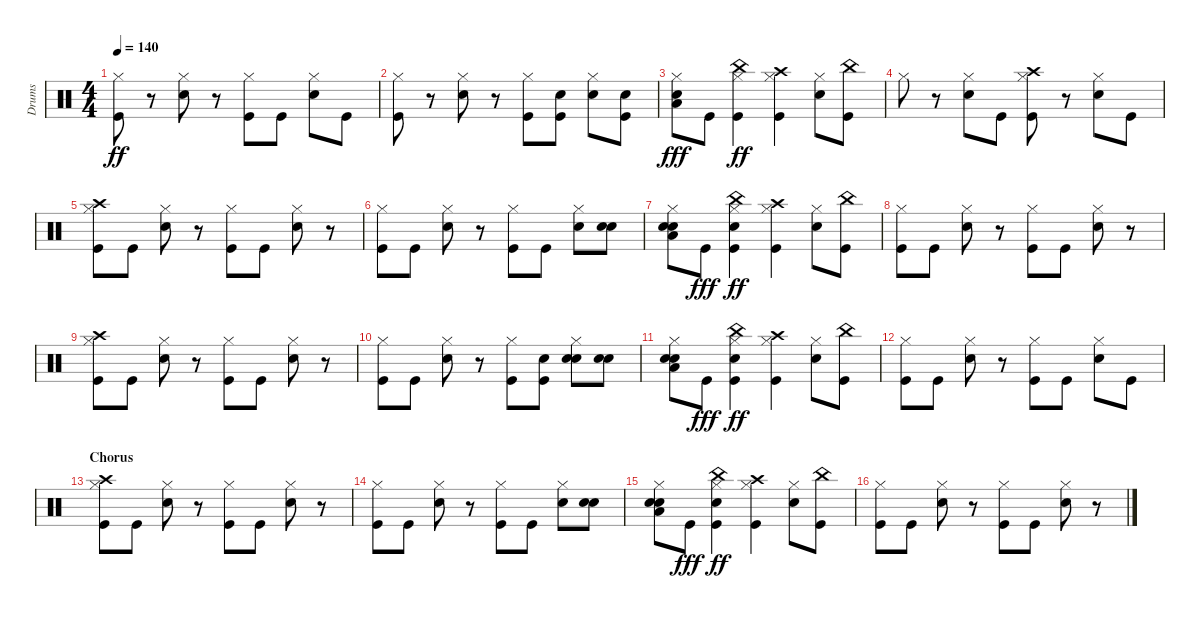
\track ("Drums" "Drums") {instrument percussion}
\staff {score}
\articulation defaults
\ts (4 4)
\tempo 140
\clef neutral
\ks c
("Hi-Hat (closed)" "Kick (hit)").8{dy ff} r.8 ("Hi-Hat (closed)" "Snare (hit) 2").8 r.8 ("Hi-Hat (closed)" "Kick (hit)").8 "Kick (hit)".8 ("Hi-Hat (closed)" "Snare (hit) 2").8 "Kick (hit)".8 |
("Hi-Hat (closed)" "Kick (hit)").8 r.8 ("Hi-Hat (closed)" "Snare (hit) 2").8 r.8 ("Hi-Hat (closed)" "Kick (hit)").8 ("Snare (hit) 2" "Kick (hit)").8 ("Snare (hit) 2" "Hi-Hat (closed)").8 ("Snare (hit) 2" "Kick (hit)").8 |
("Snare (hit) 2" "Hi-Hat (closed)" "Low Floor Tom (hit)").8{dy fff} "Kick (hit)".8 ("China (hit)" "Hi-Hat (closed)" "Kick (hit)").4{dy ff} ("Kick (hit)" "Crash high (hit)" "Hi-Hat (closed)").4 ("Hi-Hat (closed)" "Snare (hit) 2").8 ("Kick (hit)" "China (hit)").8 |
"Hi-Hat (closed)".8 r.8 ("Hi-Hat (closed)" "Snare (hit) 2").8 "Kick (hit)".8 ("Kick (hit)" "Crash high (hit)" "Hi-Hat (closed)").8 r.8 ("Hi-Hat (closed)" "Snare (hit) 2").8 "Kick (hit)".8 |
("Kick (hit)" "Crash high (hit)" "Hi-Hat (closed)").8 "Kick (hit)".8 ("Hi-Hat (closed)" "Snare (hit) 2").8 r.8 ("Hi-Hat (closed)" "Kick (hit)").8 "Kick (hit)".8 ("Hi-Hat (closed)" "Snare (hit) 2").8 r.8 |
("Hi-Hat (closed)" "Kick (hit)").8 "Kick (hit)".8 ("Hi-Hat (closed)" "Snare (hit) 2").8 r.8 ("Hi-Hat (closed)" "Kick (hit)").8 "Kick (hit)".8 ("Hi-Hat (closed)" "Snare (hit) 2").8 ("Snare (hit) 2" "Snare (hit) 2").8 |
("Snare (hit) 2" "Snare (hit) 2" "Hi-Hat (closed)" "Low Floor Tom (hit)").8 "Kick (hit)".8{dy fff} ("Kick (hit)" "China (hit)" "Hi-Hat (closed)" "Snare (hit) 2").4{dy ff} ("Kick (hit)" "Crash high (hit)" "Hi-Hat (closed)").4 ("Hi-Hat (closed)" "Snare (hit) 2").8 ("China (hit)" "Kick (hit)").8 |
("Hi-Hat (closed)" "Kick (hit)").8 "Kick (hit)".8 ("Hi-Hat (closed)" "Snare (hit) 2").8 r.8 ("Hi-Hat (closed)" "Kick (hit)").8 "Kick (hit)".8 ("Hi-Hat (closed)" "Snare (hit) 2").8 r.8 |
("Crash high (hit)" "Hi-Hat (closed)" "Kick (hit)").8 "Kick (hit)".8 ("Hi-Hat (closed)" "Snare (hit) 2").8 r.8 ("Hi-Hat (closed)" "Kick (hit)").8 "Kick (hit)".8 ("Hi-Hat (closed)" "Snare (hit) 2").8 r.8 |
("Hi-Hat (closed)" "Kick (hit)").8 "Kick (hit)".8 ("Hi-Hat (closed)" "Snare (hit) 2").8 r.8 ("Hi-Hat (closed)" "Kick (hit)").8 ("Snare (hit) 2" "Kick (hit)").8 ("Snare (hit) 2" "Hi-Hat (closed)" "Snare (hit) 2").8 ("Snare (hit) 2" "Snare (hit) 2").8 |
("Snare (hit) 2" "Snare (hit) 2" "Low Floor Tom (hit)" "Hi-Hat (closed)").8 "Kick (hit)".8{dy fff} ("Kick (hit)" "China (hit)" "Hi-Hat (closed)" "Snare (hit) 2").4{dy ff} ("Kick (hit)" "Crash high (hit)" "Hi-Hat (closed)").4 ("Hi-Hat (closed)" "Snare (hit) 2").8 ("China (hit)" "Kick (hit)").8 |
("Hi-Hat (closed)" "Kick (hit)").8 "Kick (hit)".8 ("Hi-Hat (closed)" "Snare (hit) 2").8 r.8 ("Hi-Hat (closed)" "Kick (hit)").8 "Kick (hit)".8 ("Hi-Hat (closed)" "Snare (hit) 2").8 "Kick (hit)".8 |
\section ("" "Chorus")
("Crash high (hit)" "Hi-Hat (closed)" "Kick (hit)").8 "Kick (hit)".8 ("Hi-Hat (closed)" "Snare (hit) 2").8 r.8 ("Hi-Hat (closed)" "Kick (hit)").8 "Kick (hit)".8 ("Hi-Hat (closed)" "Snare (hit) 2").8 r.8 |
("Hi-Hat (closed)" "Kick (hit)").8 "Kick (hit)".8 ("Hi-Hat (closed)" "Snare (hit) 2").8 r.8 ("Hi-Hat (closed)" "Kick (hit)").8 "Kick (hit)".8 ("Hi-Hat (closed)" "Snare (hit) 2").8 ("Snare (hit) 2" "Snare (hit) 2").8 |
("Snare (hit) 2" "Snare (hit) 2" "Hi-Hat (closed)" "Low Floor Tom (hit)").8 "Kick (hit)".8{dy fff} ("Kick (hit)" "China (hit)" "Hi-Hat (closed)" "Snare (hit) 2").4{dy ff} ("Kick (hit)" "Crash high (hit)" "Hi-Hat (closed)").4 ("Hi-Hat (closed)" "Snare (hit) 2").8 ("China (hit)" "Kick (hit)").8 |
("Hi-Hat (closed)" "Kick (hit)").8 "Kick (hit)".8 ("Hi-Hat (closed)" "Snare (hit) 2").8 r.8 ("Hi-Hat (closed)" "Kick (hit)").8 "Kick (hit)".8 ("Hi-Hat (closed)" "Snare (hit) 2").8 r.8
